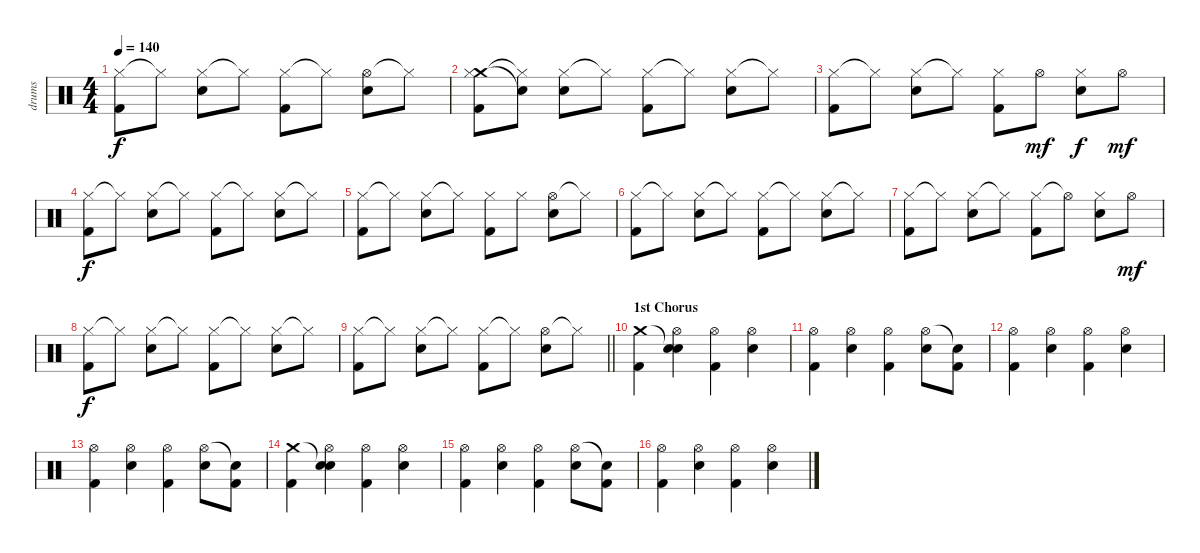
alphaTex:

\track ("drums" "drums") {instrument percussion}
\staff {score}
\articulation defaults
\ts (4 4)
\tempo 140
\clef neutral
\ks c
("Hi-Hat (closed)" "Kick (hit) 2").8{dy f} "Hi-Hat (closed)"{t}.8 ("Hi-Hat (closed)" "Electric Snare (hit)").8 "Hi-Hat (closed)"{t}.8 ("Hi-Hat (closed)" "Kick (hit) 2").8 "Hi-Hat (closed)"{t}.8 ("Hi-Hat (open)" "Electric Snare (hit)").8 "Hi-Hat (closed)"{t}.8 |
("Crash medium (hit)" "Hi-Hat (closed)" "Kick (hit) 2").8 ("Snare (hit)"{t} "Hi-Hat (closed)"{t}).8 ("Hi-Hat (closed)" "Electric Snare (hit)").8 "Hi-Hat (closed)"{t}.8 ("Hi-Hat (closed)" "Kick (hit) 2").8 "Hi-Hat (closed)"{t}.8 ("Hi-Hat (closed)" "Electric Snare (hit)").8 "Hi-Hat (closed)"{t}.8 |
("Hi-Hat (closed)" "Kick (hit) 2").8 "Hi-Hat (closed)"{t}.8 ("Hi-Hat (closed)" "Electric Snare (hit)").8 "Hi-Hat (closed)"{t}.8 ("Hi-Hat (closed)" "Kick (hit) 2").8 "Hi-Hat (open)".8{dy mf} ("Hi-Hat (closed)" "Electric Snare (hit)").8{dy f} "Hi-Hat (open)".8{dy mf} |
("Hi-Hat (closed)" "Kick (hit) 2").8{dy f} "Hi-Hat (closed)"{t}.8 ("Hi-Hat (closed)" "Electric Snare (hit)").8 "Hi-Hat (closed)"{t}.8 ("Hi-Hat (closed)" "Kick (hit) 2").8 "Hi-Hat (closed)"{t}.8 ("Hi-Hat (closed)" "Electric Snare (hit)").8 "Hi-Hat (closed)"{t}.8 |
("Hi-Hat (closed)" "Kick (hit) 2").8 "Hi-Hat (closed)"{t}.8 ("Hi-Hat (closed)" "Electric Snare (hit)").8 "Hi-Hat (closed)"{t}.8 ("Hi-Hat (closed)" "Kick (hit) 2").8 "Hi-Hat (closed)".8 ("Hi-Hat (open)" "Electric Snare (hit)").8 "Hi-Hat (closed)"{t}.8 |
("Hi-Hat (closed)" "Kick (hit) 2").8 "Hi-Hat (closed)"{t}.8 ("Hi-Hat (closed)" "Electric Snare (hit)").8 "Hi-Hat (closed)"{t}.8 ("Hi-Hat (closed)" "Kick (hit) 2").8 "Hi-Hat (closed)"{t}.8 ("Hi-Hat (closed)" "Electric Snare (hit)").8 "Hi-Hat (closed)"{t}.8 |
("Hi-Hat (closed)" "Kick (hit) 2").8 "Hi-Hat (closed)"{t}.8 ("Hi-Hat (closed)" "Electric Snare (hit)").8 "Hi-Hat (closed)"{t}.8 ("Hi-Hat (closed)" "Kick (hit) 2").8 "Hi-Hat (open)"{t}.8 ("Hi-Hat (closed)" "Electric Snare (hit)").8 "Hi-Hat (open)".8{dy mf} |
("Hi-Hat (closed)" "Kick (hit) 2").8{dy f} "Hi-Hat (closed)"{t}.8 ("Hi-Hat (closed)" "Electric Snare (hit)").8 "Hi-Hat (closed)"{t}.8 ("Hi-Hat (closed)" "Kick (hit) 2").8 "Hi-Hat (closed)"{t}.8 ("Hi-Hat (closed)" "Electric Snare (hit)").8 "Hi-Hat (closed)"{t}.8 |
\barLineRight lightlight
("Hi-Hat (closed)" "Kick (hit) 2").8 "Hi-Hat (closed)"{t}.8 ("Hi-Hat (closed)" "Electric Snare (hit)").8 "Hi-Hat (closed)"{t}.8 ("Hi-Hat (closed)" "Kick (hit) 2").8 "Hi-Hat (closed)"{t}.8 ("Hi-Hat (open)" "Electric Snare (hit)").8 "Hi-Hat (closed)"{t}.8 |
\section ("" "1st Chorus")
("Crash medium (hit)" "Kick (hit) 2").4 ("Snare (hit)"{t} "Hi-Hat (open)" "Electric Snare (hit)").4 ("Hi-Hat (open)" "Kick (hit) 2").4 ("Hi-Hat (open)" "Electric Snare (hit)").4 |
("Hi-Hat (open)" "Kick (hit) 2").4 ("Hi-Hat (open)" "Electric Snare (hit)").4 ("Hi-Hat (open)" "Kick (hit) 2").4 ("Hi-Hat (open)" "Electric Snare (hit)").8 ("Snare (hit)"{t} "Kick (hit) 2").8 |
("Hi-Hat (open)" "Kick (hit) 2").4 ("Hi-Hat (open)" "Electric Snare (hit)").4 ("Hi-Hat (open)" "Kick (hit) 2").4 ("Hi-Hat (open)" "Electric Snare (hit)").4 |
("Hi-Hat (open)" "Kick (hit) 2").4 ("Hi-Hat (open)" "Electric Snare (hit)").4 ("Hi-Hat (open)" "Kick (hit) 2").4 ("Hi-Hat (open)" "Electric Snare (hit)").8 ("Snare (hit)"{t} "Kick (hit) 2").8 |
("Crash medium (hit)" "Kick (hit) 2").4 ("Snare (hit)"{t} "Hi-Hat (open)" "Electric Snare (hit)").4 ("Hi-Hat (open)" "Kick (hit) 2").4 ("Hi-Hat (open)" "Electric Snare (hit)").4 |
("Hi-Hat (open)" "Kick (hit) 2").4 ("Hi-Hat (open)" "Electric Snare (hit)").4 ("Hi-Hat (open)" "Kick (hit) 2").4 ("Hi-Hat (open)" "Electric Snare (hit)").8 ("Snare (hit)"{t} "Kick (hit) 2").8 |
("Hi-Hat (open)" "Kick (hit) 2").4 ("Hi-Hat (open)" "Electric Snare (hit)").4 ("Hi-Hat (open)" "Kick (hit) 2").4 ("Hi-Hat (open)" "Electric Snare (hit)").4
